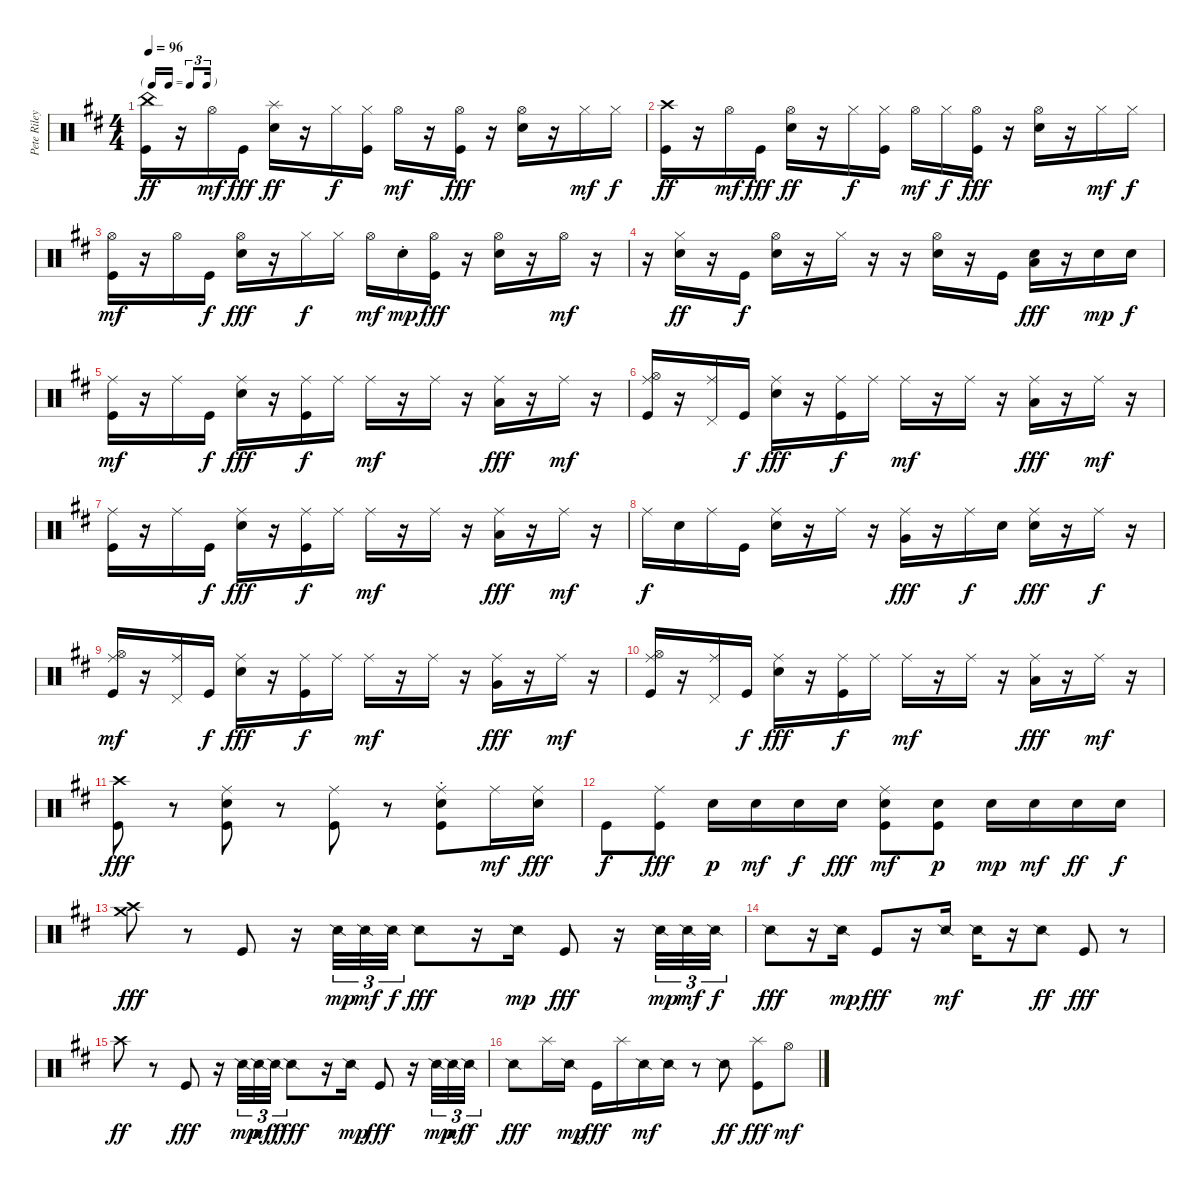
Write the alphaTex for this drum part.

\track ("Pete Riley" "Pete Riley") {instrument percussion}
\staff {score}
\articulation defaults
\ts (4 4)
\tf triplet16th
\tempo 96
\clef neutral
\ks d
("China (hit)" "Kick (hit)").16{dy ff} r.16 "Hi-Hat (open)".16{dy mf} "Kick (hit)".16{dy fff} ("Splash (hit)" "Electric Snare (hit)").16{dy ff} r.16 "Hi-Hat (closed)".16{dy f} ("Hi-Hat (closed)" "Kick (hit)").16 "Hi-Hat (open)".16{dy mf} r.16 ("Hi-Hat (open)" "Kick (hit)").16{dy fff} r.16 ("Hi-Hat (open)" "Electric Snare (hit)").16 r.16 "Hi-Hat (closed)".16{dy mf} "Hi-Hat (closed)".16{dy f} |
("Crash high (hit)" "Kick (hit)").16{dy ff} r.16 "Hi-Hat (open)".16{dy mf} "Kick (hit)".16{dy fff} ("Hi-Hat (open)" "Electric Snare (hit)").16{dy ff} r.16 "Hi-Hat (closed)".16{dy f} ("Hi-Hat (closed)" "Kick (hit)").16 "Hi-Hat (open)".16{dy mf} "Hi-Hat (closed)".16{dy f} ("Hi-Hat (open)" "Kick (hit)").16{dy fff} r.16 ("Hi-Hat (open)" "Electric Snare (hit)").16 r.16 "Hi-Hat (closed)".16{dy mf} "Hi-Hat (closed)".16{dy f} |
("Hi-Hat (open)" "Kick (hit)").16{dy mf} r.16 "Hi-Hat (open)".16 "Kick (hit)".16{dy f} ("Hi-Hat (open)" "Electric Snare (hit)").16{dy fff} r.16 "Hi-Hat (closed)".16{dy f} "Hi-Hat (closed)".16 "Hi-Hat (open)".16{dy mf} "Electric Snare (hit)"{st}.16{dy mp} ("Hi-Hat (open)" "Kick (hit)").16{dy fff} r.16 ("Hi-Hat (open)" "Electric Snare (hit)").16 r.16 "Hi-Hat (open)".16{dy mf} r.16 |
r.16 ("Hi-Hat (closed)" "Electric Snare (hit)").16{dy ff} r.16 "Kick (hit)".16{dy f} ("Hi-Hat (open)" "Electric Snare (hit)").16 r.16 "Hi-Hat (closed)".16 r.16 r.16 ("Hi-Hat (open)" "Electric Snare (hit)").16 r.16 "Kick (hit)".16 ("Low Tom (hit)" "Electric Snare (hit)").16{dy fff} r.16 "Electric Snare (hit)".16{dy mp} "Electric Snare (hit)".16{dy f} |
("Ride (middle)" "Kick (hit)").16{dy mf} r.16 "Ride (middle)".16 "Kick (hit)".16{dy f} ("Ride (middle)" "Electric Snare (hit)").16{dy fff} r.16 ("Ride (middle)" "Kick (hit)").16{dy f} "Ride (middle)".16 "Ride (middle)".16{dy mf} r.16 "Ride (middle)".16 r.16 ("Ride (middle)" "Low Floor Tom (hit)").16{dy fff} r.16 "Ride (middle)".16{dy mf} r.16 |
("Ride (middle)" "Hi-Hat (open)" "Kick (hit)").16 r.16 ("Ride (middle)" "Pedal Hi-Hat (hit)").16 "Kick (hit)".16{dy f} ("Ride (middle)" "Electric Snare (hit)").16{dy fff} r.16 ("Ride (middle)" "Kick (hit)").16{dy f} "Ride (middle)".16 "Ride (middle)".16{dy mf} r.16 "Ride (middle)".16 r.16 ("Ride (middle)" "Low Floor Tom (hit)").16{dy fff} r.16 "Ride (middle)".16{dy mf} r.16 |
("Ride (middle)" "Kick (hit)").16 r.16 "Ride (middle)".16 "Kick (hit)".16{dy f} ("Ride (middle)" "Electric Snare (hit)").16{dy fff} r.16 ("Ride (middle)" "Kick (hit)").16{dy f} "Ride (middle)".16 "Ride (middle)".16{dy mf} r.16 "Ride (middle)".16 r.16 ("Ride (middle)" "Low Floor Tom (hit)").16{dy fff} r.16 "Ride (middle)".16{dy mf} r.16 |
"Ride (middle)".16{dy f} "Electric Snare (hit)".16 "Ride (middle)".16 "Kick (hit)".16 ("Ride (middle)" "Electric Snare (hit)").16 r.16 "Ride (middle)".16 r.16 ("Ride (middle)" "Very Low Tom (hit)").16{dy fff} r.16 "Ride (middle)".16{dy f} "Electric Snare (hit)".16 ("Ride (middle)" "Electric Snare (hit)").16{dy fff} r.16 "Ride (middle)".16{dy f} r.16 |
("Ride (middle)" "Hi-Hat (open)" "Kick (hit)").16{dy mf} r.16 ("Ride (middle)" "Pedal Hi-Hat (hit)").16 "Kick (hit)".16{dy f} ("Ride (middle)" "Electric Snare (hit)").16{dy fff} r.16 ("Ride (middle)" "Kick (hit)").16{dy f} "Ride (middle)".16 "Ride (middle)".16{dy mf} r.16 "Ride (middle)".16 r.16 ("Ride (middle)" "Very Low Tom (hit)").16{dy fff} r.16 "Ride (middle)".16{dy mf} r.16 |
("Ride (middle)" "Hi-Hat (open)" "Kick (hit)").16 r.16 ("Ride (middle)" "Pedal Hi-Hat (hit)").16 "Kick (hit)".16{dy f} ("Ride (middle)" "Electric Snare (hit)").16{dy fff} r.16 ("Ride (middle)" "Kick (hit)").16{dy f} "Ride (middle)".16 "Ride (middle)".16{dy mf} r.16 "Ride (middle)".16 r.16 ("Ride (middle)" "Low Floor Tom (hit)").16{dy fff} r.16 "Ride (middle)".16{dy mf} r.16 |
("Crash high (hit)" "Kick (hit)").8{dy fff} r.8 ("Ride (middle)" "Electric Snare (hit)" "Kick (hit)").8 r.8 ("Ride (middle)" "Kick (hit)").8 r.8 ("Ride (middle)" "Electric Snare (hit)"{st} "Kick (hit)"{st}).8 "Ride (middle)".16{dy mf} ("Ride (middle)" "Electric Snare (hit)").16{dy fff} |
"Kick (hit)".8{dy f} ("Ride (middle)" "Kick (hit)").8{dy fff} "Electric Snare (hit)".16{dy p} "Electric Snare (hit)".16{dy mf} "Electric Snare (hit)".16{dy f} "Electric Snare (hit)".16{dy fff} ("Ride (middle)" "Electric Snare (hit)" "Kick (hit)").8{dy mf} ("Electric Snare (hit)" "Kick (hit)").8{dy p} "Electric Snare (hit)".16{dy mp} "Electric Snare (hit)".16{dy mf} "Electric Snare (hit)".16{dy ff} "Electric Snare (hit)".16{dy f} |
("Crash high (hit)" "Crash medium (hit)").8{dy fff} r.8 "Kick (hit)".8 r.16 "Snare (side stick) 2".32{tu (3 2) dy mp} "Snare (side stick) 2".32{tu (3 2) dy mf} "Snare (side stick) 2".32{tu (3 2) dy f} "Snare (side stick) 2".8{dy fff} r.16 "Snare (side stick) 2".16{dy mp} "Kick (hit)".8{dy fff} r.16 "Snare (side stick) 2".32{tu (3 2) dy mp} "Snare (side stick) 2".32{tu (3 2) dy mf} "Snare (side stick) 2".32{tu (3 2) dy f} |
"Snare (side stick) 2".8{dy fff} r.16 "Snare (side stick) 2".16{dy mp} "Kick (hit)".8{dy fff} r.16 "Snare (side stick) 2".16{dy mf} "Snare (side stick) 2".16 r.16 "Snare (side stick) 2".8{dy ff} "Kick (hit)".8{dy fff} r.8 |
"Crash high (hit)".8{dy ff} r.8 "Kick (hit)".8{dy fff} r.16 "Snare (side stick) 2".32{tu (3 2) dy mp} "Snare (side stick) 2".32{tu (3 2) dy mf} "Snare (side stick) 2".32{tu (3 2) dy f} "Snare (side stick) 2".8{dy fff} r.16 "Snare (side stick) 2".16{dy mp} "Kick (hit)".8{dy fff} r.16 "Snare (side stick) 2".32{tu (3 2) dy mp} "Snare (side stick) 2".32{tu (3 2) dy mf} "Snare (side stick) 2".32{tu (3 2) dy f} |
"Snare (side stick) 2".8{dy fff} "Splash (hit)".16 "Snare (side stick) 2".16{dy mp} "Kick (hit)".16{dy fff} "Splash (hit)".16 "Snare (side stick) 2".16{dy mf} "Snare (side stick) 2".16 r.8 "Snare (side stick) 2".8{dy ff} ("Splash (hit)" "Kick (hit)").8{dy fff} "Hi-Hat (open)".8{dy mf}
